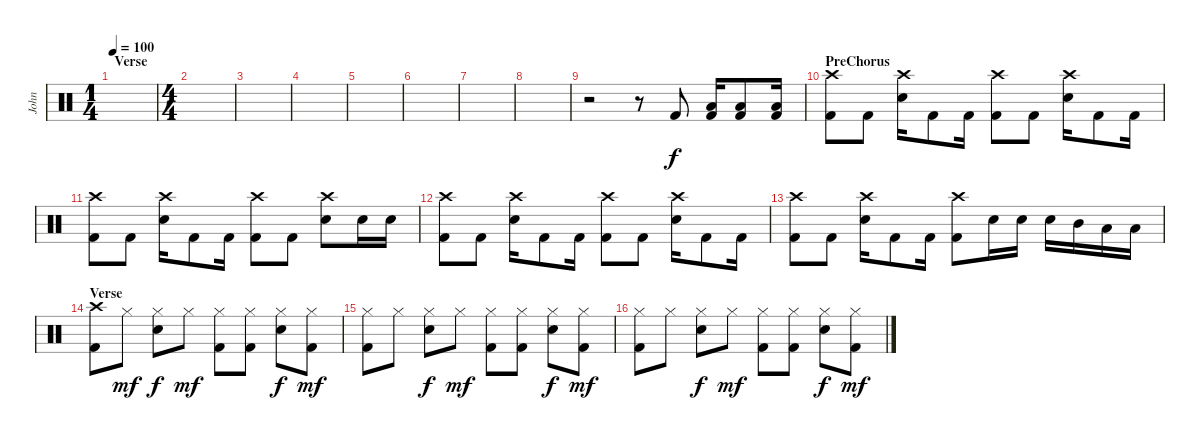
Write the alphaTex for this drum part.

\track ("John" "John") {instrument percussion}
\staff {score}
\articulation defaults
\ts (1 4)
\section ("" "Verse")
\tempo 100
\clef neutral
\ks c
|
\ts (4 4)
|
|
|
|
|
|
|
r.2 r.8 "Kick (hit) 2".8 ("Low Floor Tom (hit)" "Kick (hit) 2").16 ("Low Floor Tom (hit)" "Kick (hit) 2").8 ("Low Floor Tom (hit)" "Kick (hit) 2").16 |
\section ("" "PreChorus")
("Crash high (hit)" "Kick (hit) 2").8 "Kick (hit) 2".8 ("Crash high (hit)" "Electric Snare (hit)").16 "Kick (hit) 2".8 "Kick (hit) 2".16 ("Crash high (hit)" "Kick (hit) 2").8 "Kick (hit) 2".8 ("Crash high (hit)" "Electric Snare (hit)").16 "Kick (hit) 2".8 "Kick (hit) 2".16 |
("Crash high (hit)" "Kick (hit) 2").8 "Kick (hit) 2".8 ("Crash high (hit)" "Electric Snare (hit)").16 "Kick (hit) 2".8 "Kick (hit) 2".16 ("Crash high (hit)" "Kick (hit) 2").8 "Kick (hit) 2".8 ("Crash high (hit)" "Electric Snare (hit)").8 "Electric Snare (hit)".16 "Electric Snare (hit)".16 |
("Crash high (hit)" "Kick (hit) 2").8 "Kick (hit) 2".8 ("Crash high (hit)" "Electric Snare (hit)").16 "Kick (hit) 2".8 "Kick (hit) 2".16 ("Crash high (hit)" "Kick (hit) 2").8 "Kick (hit) 2".8 ("Crash high (hit)" "Electric Snare (hit)").16 "Kick (hit) 2".8 "Kick (hit) 2".16 |
("Crash high (hit)" "Kick (hit) 2").8 "Kick (hit) 2".8 ("Crash high (hit)" "Electric Snare (hit)").16 "Kick (hit) 2".8 "Kick (hit) 2".16 ("Crash high (hit)" "Kick (hit) 2").8 "Electric Snare (hit)".16 "Electric Snare (hit)".16 "Electric Snare (hit)".16 "Mid Tom (hit)".16 "Low Tom (hit)".16 "Low Floor Tom (hit)".16 |
\section ("" "Verse")
("Crash high (hit)" "Kick (hit) 2").8 "Hi-Hat (closed)".8{dy mf} ("Hi-Hat (closed)" "Electric Snare (hit)").8{dy f} "Hi-Hat (closed)".8{dy mf} ("Hi-Hat (closed)" "Kick (hit) 2").8 ("Hi-Hat (closed)" "Kick (hit) 2").8 ("Hi-Hat (closed)" "Electric Snare (hit)").8{dy f} ("Hi-Hat (closed)" "Kick (hit) 2").8{dy mf} |
("Hi-Hat (closed)" "Kick (hit) 2").8 "Hi-Hat (closed)".8 ("Hi-Hat (closed)" "Electric Snare (hit)").8{dy f} "Hi-Hat (closed)".8{dy mf} ("Hi-Hat (closed)" "Kick (hit) 2").8 ("Hi-Hat (closed)" "Kick (hit) 2").8 ("Hi-Hat (closed)" "Electric Snare (hit)").8{dy f} ("Hi-Hat (closed)" "Kick (hit) 2").8{dy mf} |
("Hi-Hat (closed)" "Kick (hit) 2").8 "Hi-Hat (closed)".8 ("Hi-Hat (closed)" "Electric Snare (hit)").8{dy f} "Hi-Hat (closed)".8{dy mf} ("Hi-Hat (closed)" "Kick (hit) 2").8 ("Hi-Hat (closed)" "Kick (hit) 2").8 ("Hi-Hat (closed)" "Electric Snare (hit)").8{dy f} ("Hi-Hat (closed)" "Kick (hit) 2").8{dy mf}
